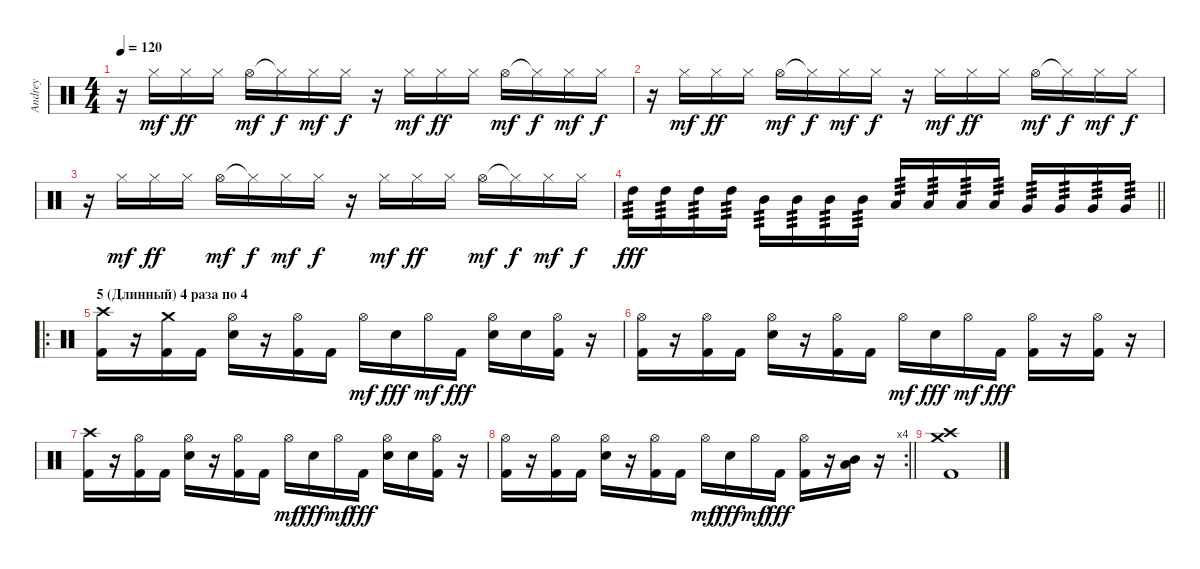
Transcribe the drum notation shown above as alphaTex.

\track ("Andrey" "Andrey") {instrument percussion}
\staff {score}
\articulation defaults
\ts (4 4)
\tempo 120
\clef neutral
\ks c
r.16{dy f} "Hi-Hat (closed)".16{dy mf} "Hi-Hat (closed)".16{dy ff} "Hi-Hat (closed)".16 "Hi-Hat (open)".16{dy mf} "Hi-Hat (closed)"{t}.16{dy f} "Hi-Hat (closed)".16{dy mf} "Hi-Hat (closed)".16{dy f} r.16 "Hi-Hat (closed)".16{dy mf} "Hi-Hat (closed)".16{dy ff} "Hi-Hat (closed)".16 "Hi-Hat (open)".16{dy mf} "Hi-Hat (closed)"{t}.16{dy f} "Hi-Hat (closed)".16{dy mf} "Hi-Hat (closed)".16{dy f} |
r.16 "Hi-Hat (closed)".16{dy mf} "Hi-Hat (closed)".16{dy ff} "Hi-Hat (closed)".16 "Hi-Hat (open)".16{dy mf} "Hi-Hat (closed)"{t}.16{dy f} "Hi-Hat (closed)".16{dy mf} "Hi-Hat (closed)".16{dy f} r.16 "Hi-Hat (closed)".16{dy mf} "Hi-Hat (closed)".16{dy ff} "Hi-Hat (closed)".16 "Hi-Hat (open)".16{dy mf} "Hi-Hat (closed)"{t}.16{dy f} "Hi-Hat (closed)".16{dy mf} "Hi-Hat (closed)".16{dy f} |
r.16 "Hi-Hat (closed)".16{dy mf} "Hi-Hat (closed)".16{dy ff} "Hi-Hat (closed)".16 "Hi-Hat (open)".16{dy mf} "Hi-Hat (closed)"{t}.16{dy f} "Hi-Hat (closed)".16{dy mf} "Hi-Hat (closed)".16{dy f} r.16 "Hi-Hat (closed)".16{dy mf} "Hi-Hat (closed)".16{dy ff} "Hi-Hat (closed)".16 "Hi-Hat (open)".16{dy mf} "Hi-Hat (closed)"{t}.16{dy f} "Hi-Hat (closed)".16{dy mf} "Hi-Hat (closed)".16{dy f} |
\barLineRight lightlight "High Tom (hit)".16{tp 3 dy fff} "High Tom (hit)".16{tp 3} "High Tom (hit)".16{tp 3} "High Tom (hit)".16{tp 3} "Mid Tom (hit)".16{tp 3} "Mid Tom (hit)".16{tp 3} "Mid Tom (hit)".16{tp 3} "Mid Tom (hit)".16{tp 3} "Low Tom (hit)".16{tp 3} "Low Tom (hit)".16{tp 3} "Low Tom (hit)".16{tp 3} "Low Tom (hit)".16{tp 3} "Very Low Tom (hit)".16{tp 3} "Very Low Tom (hit)".16{tp 3} "Very Low Tom (hit)".16{tp 3} "Very Low Tom (hit)".16{tp 3}
|
\ro
\section ("" "5 (Длинный) 4 раза по 4")
("Crash high (hit)" "Kick (hit) 2").16{volume 16} r.16 ("Crash medium (hit)" "Kick (hit) 2").16 "Kick (hit) 2".16 ("Hi-Hat (open)" "Snare (hit) 2").16 r.16 ("Hi-Hat (open)" "Kick (hit) 2").16 "Kick (hit) 2".16 "Hi-Hat (open)".16{dy mf} "Snare (hit) 2".16{dy fff} "Hi-Hat (open)".16{dy mf} "Kick (hit) 2".16{dy fff} ("Hi-Hat (open)" "Snare (hit) 2").16 "Snare (hit) 2".16 ("Hi-Hat (open)" "Kick (hit) 2").16 r.16 |
("Hi-Hat (open)" "Kick (hit) 2").16 r.16 ("Hi-Hat (open)" "Kick (hit) 2").16 "Kick (hit) 2".16 ("Hi-Hat (open)" "Snare (hit) 2").16 r.16 ("Hi-Hat (open)" "Kick (hit) 2").16 "Kick (hit) 2".16 "Hi-Hat (open)".16{dy mf} "Snare (hit) 2".16{dy fff} "Hi-Hat (open)".16{dy mf} "Kick (hit) 2".16{dy fff} ("Hi-Hat (open)" "Kick (hit) 2").16 r.16 ("Hi-Hat (open)" "Kick (hit) 2").16 r.16 |
("Crash high (hit)" "Kick (hit) 2").16 r.16 ("Hi-Hat (open)" "Kick (hit) 2").16 "Kick (hit) 2".16 ("Hi-Hat (open)" "Snare (hit) 2").16 r.16 ("Hi-Hat (open)" "Kick (hit) 2").16 "Kick (hit) 2".16 "Hi-Hat (open)".16{dy mf} "Snare (hit) 2".16{dy fff} "Hi-Hat (open)".16{dy mf} "Kick (hit) 2".16{dy fff} ("Hi-Hat (open)" "Snare (hit) 2").16 "Snare (hit) 2".16 ("Hi-Hat (open)" "Kick (hit) 2").16 r.16 |
\rc 4
\barLineRight lightlight
("Hi-Hat (open)" "Kick (hit) 2").16 r.16 ("Hi-Hat (open)" "Kick (hit) 2").16 "Kick (hit) 2".16 ("Hi-Hat (open)" "Snare (hit) 2").16 r.16 ("Hi-Hat (open)" "Kick (hit) 2").16 "Kick (hit) 2".16 "Hi-Hat (open)".16{dy mf} "Snare (hit) 2".16{dy fff} "Hi-Hat (open)".16{dy mf} "Kick (hit) 2".16{dy fff} ("Hi-Hat (open)" "Kick (hit) 2").16 r.16 ("Low Tom (hit)" "Mid Tom (hit)").16 r.16 |
("Crash high (hit)" "Crash medium (hit)" "Kick (hit) 2").1
